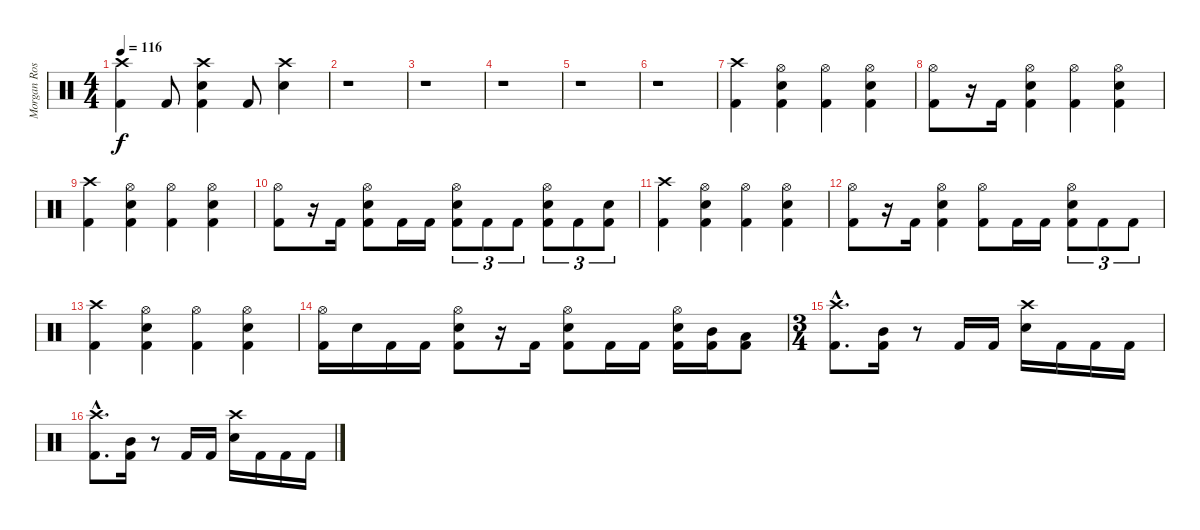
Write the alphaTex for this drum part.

\track ("Morgan Rose - Drums" "Morgan Ros") {instrument percussion}
\staff {score}
\articulation defaults
\ts (4 4)
\tempo 116
\clef neutral
\ks c
("Crash high (hit)" "Kick (hit) 2").4{dy f} "Kick (hit) 2".8 ("Crash high (hit)" "Electric Snare (hit)" "Kick (hit) 2").4 "Kick (hit) 2".8 ("Crash high (hit)" "Electric Snare (hit)").4 |
r.1 |
r.1 |
r.1 |
r.1 |
r.1 |
("Crash high (hit)" "Kick (hit) 2").4 ("Hi-Hat (open)" "Electric Snare (hit)" "Kick (hit) 2").4 ("Hi-Hat (open)" "Kick (hit) 2").4 ("Hi-Hat (open)" "Electric Snare (hit)" "Kick (hit) 2").4 |
("Hi-Hat (open)" "Kick (hit) 2").8 r.16 "Kick (hit) 2".16 ("Hi-Hat (open)" "Electric Snare (hit)" "Kick (hit) 2").4 ("Hi-Hat (open)" "Kick (hit) 2").4 ("Hi-Hat (open)" "Electric Snare (hit)" "Kick (hit) 2").4 |
("Crash high (hit)" "Kick (hit) 2").4 ("Hi-Hat (open)" "Electric Snare (hit)" "Kick (hit) 2").4 ("Hi-Hat (open)" "Kick (hit) 2").4 ("Hi-Hat (open)" "Electric Snare (hit)" "Kick (hit) 2").4 |
("Hi-Hat (open)" "Kick (hit) 2").8 r.16 "Kick (hit) 2".16 ("Hi-Hat (open)" "Electric Snare (hit)" "Kick (hit) 2").8 "Kick (hit) 2".16 "Kick (hit) 2".16 ("Hi-Hat (open)" "Electric Snare (hit)" "Kick (hit) 2").8{tu (3 2)} "Kick (hit) 2".8{tu (3 2)} "Kick (hit) 2".8{tu (3 2)} ("Hi-Hat (open)" "Electric Snare (hit)" "Kick (hit) 2").8{tu (3 2)} "Kick (hit) 2".8{tu (3 2)} ("Electric Snare (hit)" "Kick (hit) 2").8{tu (3 2)} |
("Crash high (hit)" "Kick (hit) 2").4 ("Hi-Hat (open)" "Electric Snare (hit)" "Kick (hit) 2").4 ("Hi-Hat (open)" "Kick (hit) 2").4 ("Hi-Hat (open)" "Electric Snare (hit)" "Kick (hit) 2").4 |
("Hi-Hat (open)" "Kick (hit) 2").8 r.16 "Kick (hit) 2".16 ("Hi-Hat (open)" "Electric Snare (hit)" "Kick (hit) 2").4 ("Hi-Hat (open)" "Kick (hit) 2").8 "Kick (hit) 2".16 "Kick (hit) 2".16 ("Hi-Hat (open)" "Electric Snare (hit)" "Kick (hit) 2").8{tu (3 2)} "Kick (hit) 2".8{tu (3 2)} "Kick (hit) 2".8{tu (3 2)} |
("Crash high (hit)" "Kick (hit) 2").4 ("Hi-Hat (open)" "Electric Snare (hit)" "Kick (hit) 2").4 ("Hi-Hat (open)" "Kick (hit) 2").4 ("Hi-Hat (open)" "Electric Snare (hit)" "Kick (hit) 2").4 |
("Hi-Hat (open)" "Kick (hit) 2").16 "Electric Snare (hit)".16 "Kick (hit) 2".16 "Kick (hit) 2".16 ("Hi-Hat (open)" "Electric Snare (hit)" "Kick (hit) 2").8 r.16 "Kick (hit) 2".16 ("Hi-Hat (open)" "Electric Snare (hit)" "Kick (hit) 2").8 "Kick (hit) 2".16 "Kick (hit) 2".16 ("Hi-Hat (open)" "Electric Snare (hit)" "Kick (hit) 2").16 ("Mid Tom (hit)" "Kick (hit) 2").16 ("Low Tom (hit)" "Kick (hit) 2").8 |
\ts (3 4)
("Crash high (hit)"{hac} "Kick (hit) 2"{hac}).8{d} ("Mid Tom (hit)" "Kick (hit) 2").16 r.8 "Kick (hit) 2".16 "Kick (hit) 2".16 ("Crash high (hit)" "Electric Snare (hit)").16 "Kick (hit) 2".16 "Kick (hit) 2".16 "Kick (hit) 2".16 |
("Crash high (hit)"{hac} "Kick (hit) 2"{hac}).8{d} ("Mid Tom (hit)" "Kick (hit) 2").16 r.8 "Kick (hit) 2".16 "Kick (hit) 2".16 ("Crash high (hit)" "Electric Snare (hit)").16 "Kick (hit) 2".16 "Kick (hit) 2".16 "Kick (hit) 2".16
